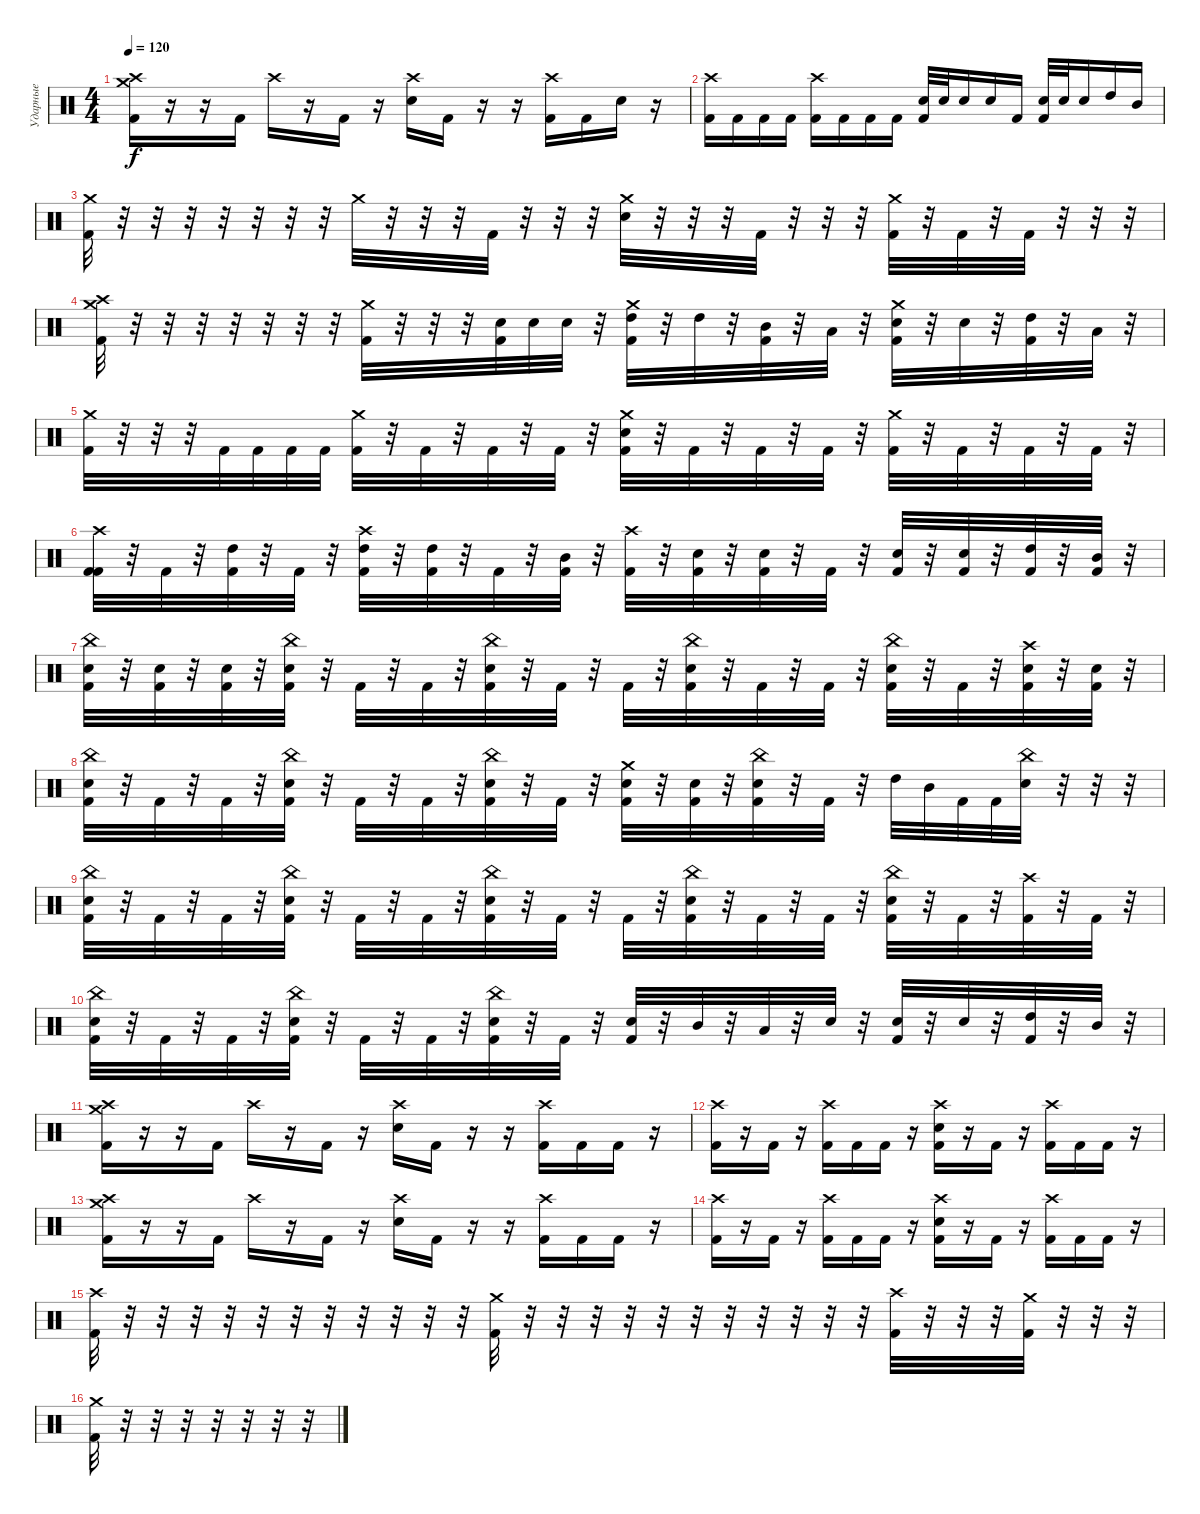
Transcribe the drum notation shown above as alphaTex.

\track ("Ударные" "Ударные") {instrument percussion}
\staff {score}
\articulation defaults
\ts (4 4)
\tempo 120
\clef neutral
\ks c
("Crash high (hit)" "Crash medium (hit)" "Kick (hit) 2").16{dy f} r.16 r.16 "Kick (hit) 2".16 "Crash high (hit)".16 r.16 "Kick (hit) 2".16 r.16 ("Crash high (hit)" "Electric Snare (hit)").16 "Kick (hit) 2".16 r.16 r.16 ("Crash high (hit)" "Kick (hit) 2").16 "Kick (hit) 2".16 "Electric Snare (hit)".16 r.16 |
("Crash high (hit)" "Kick (hit) 2").16 "Kick (hit) 2".16 "Kick (hit) 2".16 "Kick (hit) 2".16 ("Crash high (hit)" "Kick (hit) 2").16 "Kick (hit) 2".16 "Kick (hit) 2".16 "Kick (hit) 2".16 ("Electric Snare (hit)" "Kick (hit) 2").32 "Electric Snare (hit)".32 "Electric Snare (hit)".16 "Electric Snare (hit)".16 "Kick (hit) 2".16 ("Electric Snare (hit)" "Kick (hit) 2").32 "Electric Snare (hit)".32 "Electric Snare (hit)".16 "High Tom (hit)".16 "Mid Tom (hit)".16 |
("Kick (hit) 2" "Crash medium (hit)").32 r.32 r.32 r.32 r.32 r.32 r.32 r.32 "Crash medium (hit)".32 r.32 r.32 r.32 "Kick (hit) 2".32 r.32 r.32 r.32 ("Crash medium (hit)" "Electric Snare (hit)").32 r.32 r.32 r.32 "Kick (hit) 2".32 r.32 r.32 r.32 ("Kick (hit) 2" "Crash medium (hit)").32 r.32 "Kick (hit) 2".32 r.32 "Kick (hit) 2".32 r.32 r.32 r.32 |
("Crash medium (hit)" "Crash high (hit)" "Kick (hit) 2").32 r.32 r.32 r.32 r.32 r.32 r.32 r.32 ("Crash medium (hit)" "Kick (hit) 2").32 r.32 r.32 r.32 ("Electric Snare (hit)" "Kick (hit) 2").32 "Electric Snare (hit)".32 "Electric Snare (hit)".32 r.32 ("Crash medium (hit)" "High Tom (hit)" "Kick (hit) 2").32 r.32 "High Tom (hit)".32 r.32 ("Mid Tom (hit)" "Kick (hit) 2").32 r.32 "Low Tom (hit)".32 r.32 ("Crash medium (hit)" "Electric Snare (hit)" "Kick (hit) 2").32 r.32 "Electric Snare (hit)".32 r.32 ("High Tom (hit)" "Kick (hit) 2").32 r.32 "Low Tom (hit)".32 r.32 |
("Kick (hit) 2" "Crash medium (hit)").32 r.32 r.32 r.32 "Kick (hit) 2".32 "Kick (hit) 2".32 "Kick (hit) 2".32 "Kick (hit) 2".32 ("Kick (hit) 2" "Crash medium (hit)").32 r.32 "Kick (hit) 2".32 r.32 "Kick (hit) 2".32 r.32 "Kick (hit) 2".32 r.32 ("Kick (hit) 2" "Crash medium (hit)" "Electric Snare (hit)").32 r.32 "Kick (hit) 2".32 r.32 "Kick (hit) 2".32 r.32 "Kick (hit) 2".32 r.32 ("Kick (hit) 2" "Crash medium (hit)").32 r.32 "Kick (hit) 2".32 r.32 "Kick (hit) 2".32 r.32 "Kick (hit) 2".32 r.32 |
("Kick (hit) 2" "Crash high (hit)" "Kick (hit) 2").32 r.32 "Kick (hit) 2".32 r.32 ("High Tom (hit)" "Kick (hit) 2").32 r.32 "Kick (hit) 2".32 r.32 ("Crash high (hit)" "High Tom (hit)" "Kick (hit) 2").32 r.32 ("High Tom (hit)" "Kick (hit) 2").32 r.32 "Kick (hit) 2".32 r.32 ("Mid Tom (hit)" "Kick (hit) 2").32 r.32 ("Crash high (hit)" "Kick (hit) 2").32 r.32 ("Electric Snare (hit)" "Kick (hit) 2").32 r.32 ("Electric Snare (hit)" "Kick (hit) 2").32 r.32 "Kick (hit) 2".32 r.32 ("Electric Snare (hit)" "Kick (hit) 2").32 r.32 ("Electric Snare (hit)" "Kick (hit) 2").32 r.32 ("High Tom (hit)" "Kick (hit) 2").32 r.32 ("Mid Tom (hit)" "Kick (hit) 2").32 r.32 |
("China (hit)" "Electric Snare (hit)" "Kick (hit) 2").32 r.32 ("Electric Snare (hit)" "Kick (hit) 2").32 r.32 ("Electric Snare (hit)" "Kick (hit) 2").32 r.32 ("China (hit)" "Electric Snare (hit)" "Kick (hit) 2").32 r.32 "Kick (hit) 2".32 r.32 "Kick (hit) 2".32 r.32 ("China (hit)" "Electric Snare (hit)" "Kick (hit) 2").32 r.32 "Kick (hit) 2".32 r.32 "Kick (hit) 2".32 r.32 ("China (hit)" "Electric Snare (hit)" "Kick (hit) 2").32 r.32 "Kick (hit) 2".32 r.32 "Kick (hit) 2".32 r.32 ("China (hit)" "Electric Snare (hit)" "Kick (hit) 2").32 r.32 "Kick (hit) 2".32 r.32 ("Crash high (hit)" "Electric Snare (hit)" "Kick (hit) 2").32 r.32 ("Electric Snare (hit)" "Kick (hit) 2").32 r.32 |
("China (hit)" "Electric Snare (hit)" "Kick (hit) 2").32 r.32 "Kick (hit) 2".32 r.32 "Kick (hit) 2".32 r.32 ("China (hit)" "Electric Snare (hit)" "Kick (hit) 2").32 r.32 "Kick (hit) 2".32 r.32 "Kick (hit) 2".32 r.32 ("China (hit)" "Electric Snare (hit)" "Kick (hit) 2").32 r.32 "Kick (hit) 2".32 r.32 ("Crash medium (hit)" "Electric Snare (hit)" "Kick (hit) 2").32 r.32 ("Electric Snare (hit)" "Kick (hit) 2").32 r.32 ("China (hit)" "Electric Snare (hit)" "Kick (hit) 2").32 r.32 "Kick (hit) 2".32 r.32 "High Tom (hit)".32 "Mid Tom (hit)".32 "Kick (hit) 2".32 "Kick (hit) 2".32 ("China (hit)" "Electric Snare (hit)").32 r.32 r.32 r.32 |
("China (hit)" "Electric Snare (hit)" "Kick (hit) 2").32 r.32 "Kick (hit) 2".32 r.32 "Kick (hit) 2".32 r.32 ("China (hit)" "Electric Snare (hit)" "Kick (hit) 2").32 r.32 "Kick (hit) 2".32 r.32 "Kick (hit) 2".32 r.32 ("China (hit)" "Electric Snare (hit)" "Kick (hit) 2").32 r.32 "Kick (hit) 2".32 r.32 "Kick (hit) 2".32 r.32 ("China (hit)" "Electric Snare (hit)" "Kick (hit) 2").32 r.32 "Kick (hit) 2".32 r.32 "Kick (hit) 2".32 r.32 ("China (hit)" "Electric Snare (hit)" "Kick (hit) 2").32 r.32 "Kick (hit) 2".32 r.32 ("Crash high (hit)" "Kick (hit) 2").32 r.32 "Kick (hit) 2".32 r.32 |
("China (hit)" "Electric Snare (hit)" "Kick (hit) 2").32 r.32 "Kick (hit) 2".32 r.32 "Kick (hit) 2".32 r.32 ("China (hit)" "Electric Snare (hit)" "Kick (hit) 2").32 r.32 "Kick (hit) 2".32 r.32 "Kick (hit) 2".32 r.32 ("China (hit)" "Electric Snare (hit)" "Kick (hit) 2").32 r.32 "Kick (hit) 2".32 r.32 ("Electric Snare (hit)" "Kick (hit) 2").32 r.32 "Mid Tom (hit)".32 r.32 "Low Tom (hit)".32 r.32 "Electric Snare (hit)".32 r.32 ("Electric Snare (hit)" "Kick (hit) 2").32 r.32 "Electric Snare (hit)".32 r.32 ("High Tom (hit)" "Kick (hit) 2").32 r.32 "Mid Tom (hit)".32 r.32 |
("Crash high (hit)" "Crash medium (hit)" "Kick (hit) 2").16 r.16 r.16 "Kick (hit) 2".16 "Crash high (hit)".16 r.16 "Kick (hit) 2".16 r.16 ("Crash high (hit)" "Electric Snare (hit)").16 "Kick (hit) 2".16 r.16 r.16 ("Crash high (hit)" "Kick (hit) 2").16 "Kick (hit) 2".16 "Kick (hit) 2".16 r.16 |
("Crash high (hit)" "Kick (hit) 2").16 r.16 "Kick (hit) 2".16 r.16 ("Crash high (hit)" "Kick (hit) 2").16 "Kick (hit) 2".16 "Kick (hit) 2".16 r.16 ("Crash high (hit)" "Electric Snare (hit)" "Kick (hit) 2").16 r.16 "Kick (hit) 2".16 r.16 ("Crash high (hit)" "Kick (hit) 2").16 "Kick (hit) 2".16 "Kick (hit) 2".16 r.16 |
("Crash high (hit)" "Crash medium (hit)" "Kick (hit) 2").16 r.16 r.16 "Kick (hit) 2".16 "Crash high (hit)".16 r.16 "Kick (hit) 2".16 r.16 ("Crash high (hit)" "Electric Snare (hit)").16 "Kick (hit) 2".16 r.16 r.16 ("Crash high (hit)" "Kick (hit) 2").16 "Kick (hit) 2".16 "Kick (hit) 2".16 r.16 |
("Crash high (hit)" "Kick (hit) 2").16 r.16 "Kick (hit) 2".16 r.16 ("Crash high (hit)" "Kick (hit) 2").16 "Kick (hit) 2".16 "Kick (hit) 2".16 r.16 ("Crash high (hit)" "Electric Snare (hit)" "Kick (hit) 2").16 r.16 "Kick (hit) 2".16 r.16 ("Crash high (hit)" "Kick (hit) 2").16 "Kick (hit) 2".16 "Kick (hit) 2".16 r.16 |
("Kick (hit) 2" "Crash high (hit)").32 r.32 r.32{volume 0} r.32 r.32 r.32 r.32 r.32 r.32 r.32 r.32 r.32 ("Crash medium (hit)" "Kick (hit) 2").32{volume 12} r.32 r.32{volume 0} r.32 r.32 r.32 r.32 r.32 r.32 r.32 r.32 r.32 ("Crash high (hit)" "Kick (hit) 2").32{volume 12} r.32 r.32 r.32 ("Crash medium (hit)" "Kick (hit) 2").32 r.32 r.32 r.32 |
("Crash medium (hit)" "Kick (hit) 2").32 r.32 r.32{volume 0} r.32 r.32 r.32 r.32 r.32
